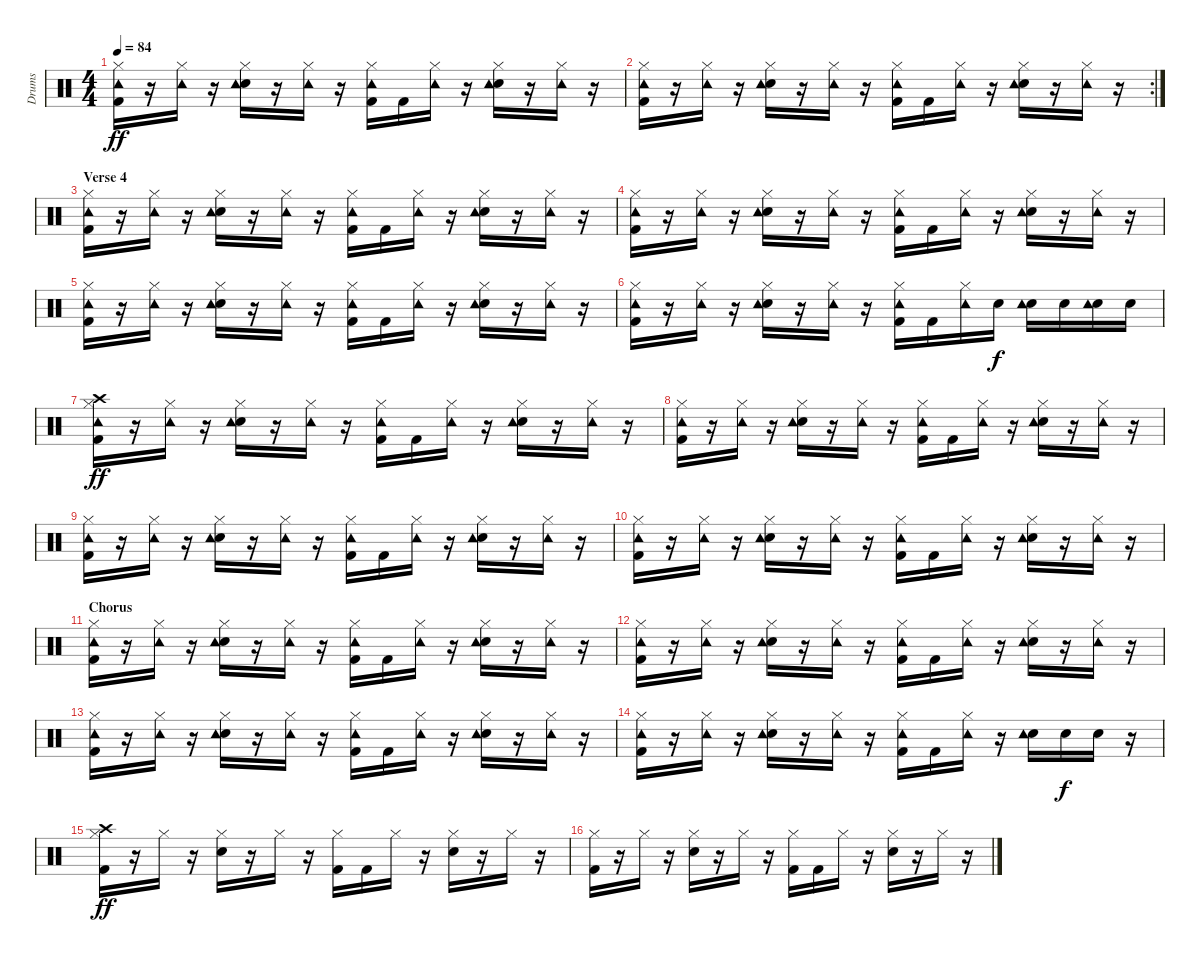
\track ("Drums" "Drums") {instrument percussion}
\staff {score}
\articulation defaults
\ts (4 4)
\tempo 84
\clef neutral
\ks c
("Kick (hit) 2" "Hi-Hat (closed)" "Tambourine (hit)").16{dy ff} r.16 ("Hi-Hat (closed)" "Tambourine (hit)").16 r.16 ("Snare (hit) 2" "Hi-Hat (closed)" "Tambourine (hit)").16 r.16 ("Hi-Hat (closed)" "Tambourine (hit)").16 r.16 ("Kick (hit) 2" "Hi-Hat (closed)" "Tambourine (hit)").16 "Kick (hit) 2".16 ("Hi-Hat (closed)" "Tambourine (hit)").16 r.16 ("Snare (hit) 2" "Hi-Hat (closed)" "Tambourine (hit)").16 r.16 ("Hi-Hat (closed)" "Tambourine (hit)").16 r.16 |
\rc 2
("Kick (hit) 2" "Hi-Hat (closed)" "Tambourine (hit)").16 r.16 ("Hi-Hat (closed)" "Tambourine (hit)").16 r.16 ("Snare (hit) 2" "Hi-Hat (closed)" "Tambourine (hit)").16 r.16 ("Hi-Hat (closed)" "Tambourine (hit)").16 r.16 ("Kick (hit) 2" "Hi-Hat (closed)" "Tambourine (hit)").16 "Kick (hit) 2".16 ("Hi-Hat (closed)" "Tambourine (hit)").16 r.16 ("Snare (hit) 2" "Hi-Hat (closed)" "Tambourine (hit)").16 r.16 ("Hi-Hat (closed)" "Tambourine (hit)").16 r.16 |
\section ("" "Verse 4")
("Kick (hit) 2" "Hi-Hat (closed)" "Tambourine (hit)").16 r.16 ("Hi-Hat (closed)" "Tambourine (hit)").16 r.16 ("Snare (hit) 2" "Hi-Hat (closed)" "Tambourine (hit)").16 r.16 ("Hi-Hat (closed)" "Tambourine (hit)").16 r.16 ("Kick (hit) 2" "Hi-Hat (closed)" "Tambourine (hit)").16 "Kick (hit) 2".16 ("Hi-Hat (closed)" "Tambourine (hit)").16 r.16 ("Snare (hit) 2" "Hi-Hat (closed)" "Tambourine (hit)").16 r.16 ("Hi-Hat (closed)" "Tambourine (hit)").16 r.16 |
("Kick (hit) 2" "Hi-Hat (closed)" "Tambourine (hit)").16 r.16 ("Hi-Hat (closed)" "Tambourine (hit)").16 r.16 ("Snare (hit) 2" "Hi-Hat (closed)" "Tambourine (hit)").16 r.16 ("Hi-Hat (closed)" "Tambourine (hit)").16 r.16 ("Kick (hit) 2" "Hi-Hat (closed)" "Tambourine (hit)").16 "Kick (hit) 2".16 ("Hi-Hat (closed)" "Tambourine (hit)").16 r.16 ("Snare (hit) 2" "Hi-Hat (closed)" "Tambourine (hit)").16 r.16 ("Hi-Hat (closed)" "Tambourine (hit)").16 r.16 |
("Kick (hit) 2" "Hi-Hat (closed)" "Tambourine (hit)").16 r.16 ("Hi-Hat (closed)" "Tambourine (hit)").16 r.16 ("Snare (hit) 2" "Hi-Hat (closed)" "Tambourine (hit)").16 r.16 ("Hi-Hat (closed)" "Tambourine (hit)").16 r.16 ("Kick (hit) 2" "Hi-Hat (closed)" "Tambourine (hit)").16 "Kick (hit) 2".16 ("Hi-Hat (closed)" "Tambourine (hit)").16 r.16 ("Snare (hit) 2" "Hi-Hat (closed)" "Tambourine (hit)").16 r.16 ("Hi-Hat (closed)" "Tambourine (hit)").16 r.16 |
("Kick (hit) 2" "Hi-Hat (closed)" "Tambourine (hit)").16 r.16 ("Hi-Hat (closed)" "Tambourine (hit)").16 r.16 ("Snare (hit) 2" "Hi-Hat (closed)" "Tambourine (hit)").16 r.16 ("Hi-Hat (closed)" "Tambourine (hit)").16 r.16 ("Kick (hit) 2" "Hi-Hat (closed)" "Tambourine (hit)").16 "Kick (hit) 2".16 ("Hi-Hat (closed)" "Tambourine (hit)").16 "Snare (hit) 2".16{dy f} ("Snare (hit) 2" "Tambourine (hit)").16 "Snare (hit) 2".16 ("Snare (hit) 2" "Tambourine (hit)").16 "Snare (hit) 2".16 |
("Kick (hit) 2" "Hi-Hat (closed)" "Crash high (hit)" "Tambourine (hit)").16{dy ff} r.16 ("Hi-Hat (closed)" "Tambourine (hit)").16 r.16 ("Snare (hit) 2" "Hi-Hat (closed)" "Tambourine (hit)").16 r.16 ("Hi-Hat (closed)" "Tambourine (hit)").16 r.16 ("Kick (hit) 2" "Hi-Hat (closed)" "Tambourine (hit)").16 "Kick (hit) 2".16 ("Hi-Hat (closed)" "Tambourine (hit)").16 r.16 ("Snare (hit) 2" "Hi-Hat (closed)" "Tambourine (hit)").16 r.16 ("Hi-Hat (closed)" "Tambourine (hit)").16 r.16 |
("Kick (hit) 2" "Hi-Hat (closed)" "Tambourine (hit)").16 r.16 ("Hi-Hat (closed)" "Tambourine (hit)").16 r.16 ("Snare (hit) 2" "Hi-Hat (closed)" "Tambourine (hit)").16 r.16 ("Hi-Hat (closed)" "Tambourine (hit)").16 r.16 ("Kick (hit) 2" "Hi-Hat (closed)" "Tambourine (hit)").16 "Kick (hit) 2".16 ("Hi-Hat (closed)" "Tambourine (hit)").16 r.16 ("Snare (hit) 2" "Hi-Hat (closed)" "Tambourine (hit)").16 r.16 ("Hi-Hat (closed)" "Tambourine (hit)").16 r.16 |
("Kick (hit) 2" "Hi-Hat (closed)" "Tambourine (hit)").16 r.16 ("Hi-Hat (closed)" "Tambourine (hit)").16 r.16 ("Snare (hit) 2" "Hi-Hat (closed)" "Tambourine (hit)").16 r.16 ("Hi-Hat (closed)" "Tambourine (hit)").16 r.16 ("Kick (hit) 2" "Hi-Hat (closed)" "Tambourine (hit)").16 "Kick (hit) 2".16 ("Hi-Hat (closed)" "Tambourine (hit)").16 r.16 ("Snare (hit) 2" "Hi-Hat (closed)" "Tambourine (hit)").16 r.16 ("Hi-Hat (closed)" "Tambourine (hit)").16 r.16 |
("Kick (hit) 2" "Hi-Hat (closed)" "Tambourine (hit)").16 r.16 ("Hi-Hat (closed)" "Tambourine (hit)").16 r.16 ("Snare (hit) 2" "Hi-Hat (closed)" "Tambourine (hit)").16 r.16 ("Hi-Hat (closed)" "Tambourine (hit)").16 r.16 ("Kick (hit) 2" "Hi-Hat (closed)" "Tambourine (hit)").16 "Kick (hit) 2".16 ("Hi-Hat (closed)" "Tambourine (hit)").16 r.16 ("Snare (hit) 2" "Hi-Hat (closed)" "Tambourine (hit)").16 r.16 ("Hi-Hat (closed)" "Tambourine (hit)").16 r.16 |
\section ("" "Chorus")
("Kick (hit) 2" "Hi-Hat (closed)" "Tambourine (hit)").16 r.16 ("Hi-Hat (closed)" "Tambourine (hit)").16 r.16 ("Snare (hit) 2" "Hi-Hat (closed)" "Tambourine (hit)").16 r.16 ("Hi-Hat (closed)" "Tambourine (hit)").16 r.16 ("Kick (hit) 2" "Hi-Hat (closed)" "Tambourine (hit)").16 "Kick (hit) 2".16 ("Hi-Hat (closed)" "Tambourine (hit)").16 r.16 ("Snare (hit) 2" "Hi-Hat (closed)" "Tambourine (hit)").16 r.16 ("Hi-Hat (closed)" "Tambourine (hit)").16 r.16 |
("Kick (hit) 2" "Hi-Hat (closed)" "Tambourine (hit)").16 r.16 ("Hi-Hat (closed)" "Tambourine (hit)").16 r.16 ("Snare (hit) 2" "Hi-Hat (closed)" "Tambourine (hit)").16 r.16 ("Hi-Hat (closed)" "Tambourine (hit)").16 r.16 ("Kick (hit) 2" "Hi-Hat (closed)" "Tambourine (hit)").16 "Kick (hit) 2".16 ("Hi-Hat (closed)" "Tambourine (hit)").16 r.16 ("Snare (hit) 2" "Hi-Hat (closed)" "Tambourine (hit)").16 r.16 ("Hi-Hat (closed)" "Tambourine (hit)").16 r.16 |
("Kick (hit) 2" "Hi-Hat (closed)" "Tambourine (hit)").16 r.16 ("Hi-Hat (closed)" "Tambourine (hit)").16 r.16 ("Snare (hit) 2" "Hi-Hat (closed)" "Tambourine (hit)").16 r.16 ("Hi-Hat (closed)" "Tambourine (hit)").16 r.16 ("Kick (hit) 2" "Hi-Hat (closed)" "Tambourine (hit)").16 "Kick (hit) 2".16 ("Hi-Hat (closed)" "Tambourine (hit)").16 r.16 ("Snare (hit) 2" "Hi-Hat (closed)" "Tambourine (hit)").16 r.16 ("Hi-Hat (closed)" "Tambourine (hit)").16 r.16 |
("Kick (hit) 2" "Hi-Hat (closed)" "Tambourine (hit)").16 r.16 ("Hi-Hat (closed)" "Tambourine (hit)").16 r.16 ("Snare (hit) 2" "Hi-Hat (closed)" "Tambourine (hit)").16 r.16 ("Hi-Hat (closed)" "Tambourine (hit)").16 r.16 ("Kick (hit) 2" "Hi-Hat (closed)" "Tambourine (hit)").16 "Kick (hit) 2".16 ("Hi-Hat (closed)" "Tambourine (hit)").16 r.16 ("Snare (hit) 2" "Tambourine (hit)").16 "Snare (hit) 2".16{dy f} "Snare (hit) 2".16 r.16 |
("Kick (hit) 2" "Hi-Hat (closed)" "Crash high (hit)").16{dy ff} r.16 "Hi-Hat (closed)".16 r.16 ("Snare (hit) 2" "Hi-Hat (closed)").16 r.16 "Hi-Hat (closed)".16 r.16 ("Kick (hit) 2" "Hi-Hat (closed)").16 "Kick (hit) 2".16 "Hi-Hat (closed)".16 r.16 ("Snare (hit) 2" "Hi-Hat (closed)").16 r.16 "Hi-Hat (closed)".16 r.16 |
("Kick (hit) 2" "Hi-Hat (closed)").16 r.16 "Hi-Hat (closed)".16 r.16 ("Snare (hit) 2" "Hi-Hat (closed)").16 r.16 "Hi-Hat (closed)".16 r.16 ("Kick (hit) 2" "Hi-Hat (closed)").16 "Kick (hit) 2".16 "Hi-Hat (closed)".16 r.16 ("Snare (hit) 2" "Hi-Hat (closed)").16 r.16 "Hi-Hat (closed)".16 r.16
